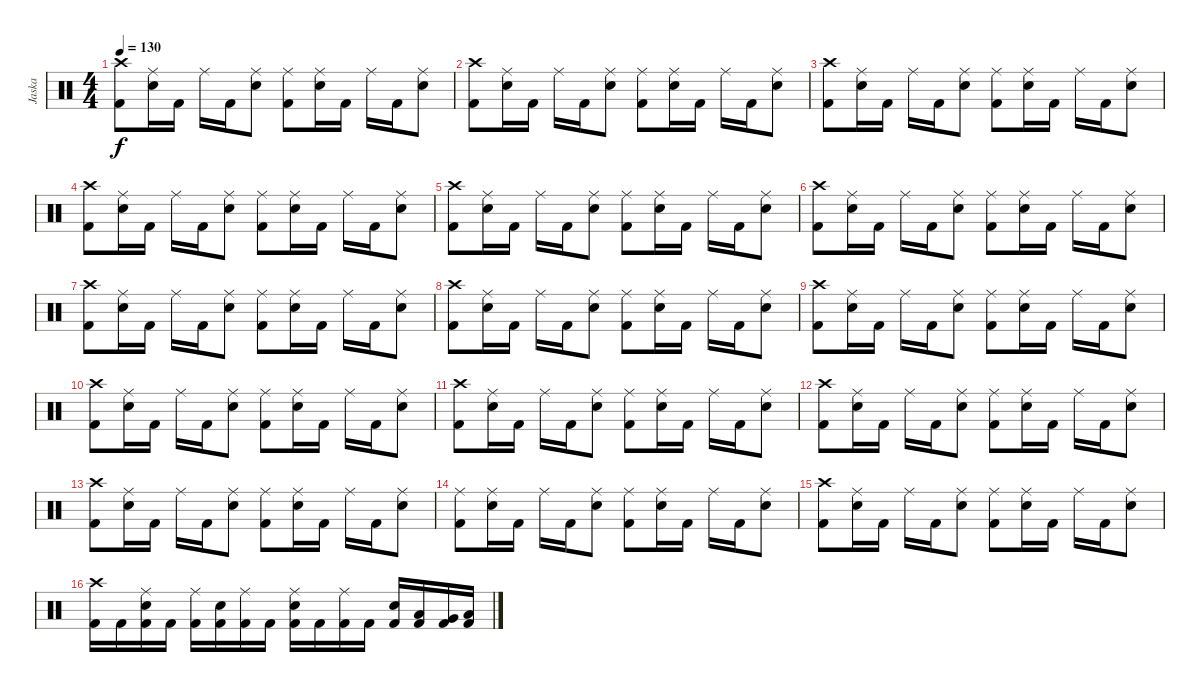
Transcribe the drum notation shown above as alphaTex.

\track ("Jaska " "Jaska ") {instrument percussion}
\staff {score}
\articulation defaults
\ts (4 4)
\tempo 130
\clef neutral
\ks c
("Crash high (hit)" "Kick (hit) 2").8{dy f} ("Ride (middle)" "Electric Snare (hit)").16 "Kick (hit) 2".16 "Ride (middle)".16 "Kick (hit) 2".16 ("Ride (middle)" "Electric Snare (hit)").8 ("Ride (middle)" "Kick (hit) 2").8 ("Ride (middle)" "Electric Snare (hit)").16 "Kick (hit) 2".16 "Ride (middle)".16 "Kick (hit) 2".16 ("Ride (middle)" "Electric Snare (hit)").8 |
("Crash high (hit)" "Kick (hit) 2").8 ("Ride (middle)" "Electric Snare (hit)").16 "Kick (hit) 2".16 "Ride (middle)".16 "Kick (hit) 2".16 ("Ride (middle)" "Electric Snare (hit)").8 ("Ride (middle)" "Kick (hit) 2").8 ("Ride (middle)" "Electric Snare (hit)").16 "Kick (hit) 2".16 "Ride (middle)".16 "Kick (hit) 2".16 ("Ride (middle)" "Electric Snare (hit)").8 |
("Crash high (hit)" "Kick (hit) 2").8 ("Ride (middle)" "Electric Snare (hit)").16 "Kick (hit) 2".16 "Ride (middle)".16 "Kick (hit) 2".16 ("Ride (middle)" "Electric Snare (hit)").8 ("Ride (middle)" "Kick (hit) 2").8 ("Ride (middle)" "Electric Snare (hit)").16 "Kick (hit) 2".16 "Ride (middle)".16 "Kick (hit) 2".16 ("Ride (middle)" "Electric Snare (hit)").8 |
("Crash high (hit)" "Kick (hit) 2").8 ("Ride (middle)" "Electric Snare (hit)").16 "Kick (hit) 2".16 "Ride (middle)".16 "Kick (hit) 2".16 ("Ride (middle)" "Electric Snare (hit)").8 ("Ride (middle)" "Kick (hit) 2").8 ("Ride (middle)" "Electric Snare (hit)").16 "Kick (hit) 2".16 "Ride (middle)".16 "Kick (hit) 2".16 ("Ride (middle)" "Electric Snare (hit)").8 |
("Crash high (hit)" "Kick (hit) 2").8 ("Ride (middle)" "Electric Snare (hit)").16 "Kick (hit) 2".16 "Ride (middle)".16 "Kick (hit) 2".16 ("Ride (middle)" "Electric Snare (hit)").8 ("Ride (middle)" "Kick (hit) 2").8 ("Ride (middle)" "Electric Snare (hit)").16 "Kick (hit) 2".16 "Ride (middle)".16 "Kick (hit) 2".16 ("Ride (middle)" "Electric Snare (hit)").8 |
("Crash high (hit)" "Kick (hit) 2").8 ("Ride (middle)" "Electric Snare (hit)").16 "Kick (hit) 2".16 "Ride (middle)".16 "Kick (hit) 2".16 ("Ride (middle)" "Electric Snare (hit)").8 ("Ride (middle)" "Kick (hit) 2").8 ("Ride (middle)" "Electric Snare (hit)").16 "Kick (hit) 2".16 "Ride (middle)".16 "Kick (hit) 2".16 ("Ride (middle)" "Electric Snare (hit)").8 |
("Crash high (hit)" "Kick (hit) 2").8 ("Ride (middle)" "Electric Snare (hit)").16 "Kick (hit) 2".16 "Ride (middle)".16 "Kick (hit) 2".16 ("Ride (middle)" "Electric Snare (hit)").8 ("Ride (middle)" "Kick (hit) 2").8 ("Ride (middle)" "Electric Snare (hit)").16 "Kick (hit) 2".16 "Ride (middle)".16 "Kick (hit) 2".16 ("Ride (middle)" "Electric Snare (hit)").8 |
("Crash high (hit)" "Kick (hit) 2").8 ("Ride (middle)" "Electric Snare (hit)").16 "Kick (hit) 2".16 "Ride (middle)".16 "Kick (hit) 2".16 ("Ride (middle)" "Electric Snare (hit)").8 ("Ride (middle)" "Kick (hit) 2").8 ("Ride (middle)" "Electric Snare (hit)").16 "Kick (hit) 2".16 "Ride (middle)".16 "Kick (hit) 2".16 ("Ride (middle)" "Electric Snare (hit)").8 |
("Crash high (hit)" "Kick (hit) 2").8 ("Ride (middle)" "Electric Snare (hit)").16 "Kick (hit) 2".16 "Ride (middle)".16 "Kick (hit) 2".16 ("Ride (middle)" "Electric Snare (hit)").8 ("Ride (middle)" "Kick (hit) 2").8 ("Ride (middle)" "Electric Snare (hit)").16 "Kick (hit) 2".16 "Ride (middle)".16 "Kick (hit) 2".16 ("Ride (middle)" "Electric Snare (hit)").8 |
("Crash high (hit)" "Kick (hit) 2").8 ("Ride (middle)" "Electric Snare (hit)").16 "Kick (hit) 2".16 "Ride (middle)".16 "Kick (hit) 2".16 ("Ride (middle)" "Electric Snare (hit)").8 ("Ride (middle)" "Kick (hit) 2").8 ("Ride (middle)" "Electric Snare (hit)").16 "Kick (hit) 2".16 "Ride (middle)".16 "Kick (hit) 2".16 ("Ride (middle)" "Electric Snare (hit)").8 |
("Crash high (hit)" "Kick (hit) 2").8 ("Ride (middle)" "Electric Snare (hit)").16 "Kick (hit) 2".16 "Ride (middle)".16 "Kick (hit) 2".16 ("Ride (middle)" "Electric Snare (hit)").8 ("Ride (middle)" "Kick (hit) 2").8 ("Ride (middle)" "Electric Snare (hit)").16 "Kick (hit) 2".16 "Ride (middle)".16 "Kick (hit) 2".16 ("Ride (middle)" "Electric Snare (hit)").8 |
("Crash high (hit)" "Kick (hit) 2").8 ("Ride (middle)" "Electric Snare (hit)").16 "Kick (hit) 2".16 "Ride (middle)".16 "Kick (hit) 2".16 ("Ride (middle)" "Electric Snare (hit)").8 ("Ride (middle)" "Kick (hit) 2").8 ("Ride (middle)" "Electric Snare (hit)").16 "Kick (hit) 2".16 "Ride (middle)".16 "Kick (hit) 2".16 ("Ride (middle)" "Electric Snare (hit)").8 |
("Crash high (hit)" "Kick (hit) 2").8 ("Ride (middle)" "Electric Snare (hit)").16 "Kick (hit) 2".16 "Ride (middle)".16 "Kick (hit) 2".16 ("Ride (middle)" "Electric Snare (hit)").8 ("Ride (middle)" "Kick (hit) 2").8 ("Ride (middle)" "Electric Snare (hit)").16 "Kick (hit) 2".16 "Ride (middle)".16 "Kick (hit) 2".16 ("Ride (middle)" "Electric Snare (hit)").8 |
("Ride (middle)" "Kick (hit) 2").8 ("Ride (middle)" "Electric Snare (hit)").16 "Kick (hit) 2".16 "Ride (middle)".16 "Kick (hit) 2".16 ("Ride (middle)" "Electric Snare (hit)").8 ("Ride (middle)" "Kick (hit) 2").8 ("Ride (middle)" "Electric Snare (hit)").16 "Kick (hit) 2".16 "Ride (middle)".16 "Kick (hit) 2".16 ("Ride (middle)" "Electric Snare (hit)").8 |
("Crash high (hit)" "Kick (hit) 2").8 ("Ride (middle)" "Electric Snare (hit)").16 "Kick (hit) 2".16 "Ride (middle)".16 "Kick (hit) 2".16 ("Ride (middle)" "Electric Snare (hit)").8 ("Ride (middle)" "Kick (hit) 2").8 ("Ride (middle)" "Electric Snare (hit)").16 "Kick (hit) 2".16 "Ride (middle)".16 "Kick (hit) 2".16 ("Ride (middle)" "Electric Snare (hit)").8 |
("Crash high (hit)" "Kick (hit) 2").16 "Kick (hit) 2".16 ("Ride (middle)" "Electric Snare (hit)" "Kick (hit) 2").16 "Kick (hit) 2".16 ("Ride (middle)" "Kick (hit) 2").16 ("Electric Snare (hit)" "Kick (hit) 2").16 ("Ride (middle)" "Kick (hit) 2").16 "Kick (hit) 2".16 ("Ride (middle)" "Electric Snare (hit)" "Kick (hit) 2").16 "Kick (hit) 2".16 ("Ride (middle)" "Kick (hit) 2").16 "Kick (hit) 2".16 ("Electric Snare (hit)" "Kick (hit) 2").16 ("Low Tom (hit)" "Kick (hit) 2").16 ("Very Low Tom (hit)" "Kick (hit) 2").16 ("Low Floor Tom (hit)" "Kick (hit) 2").16
